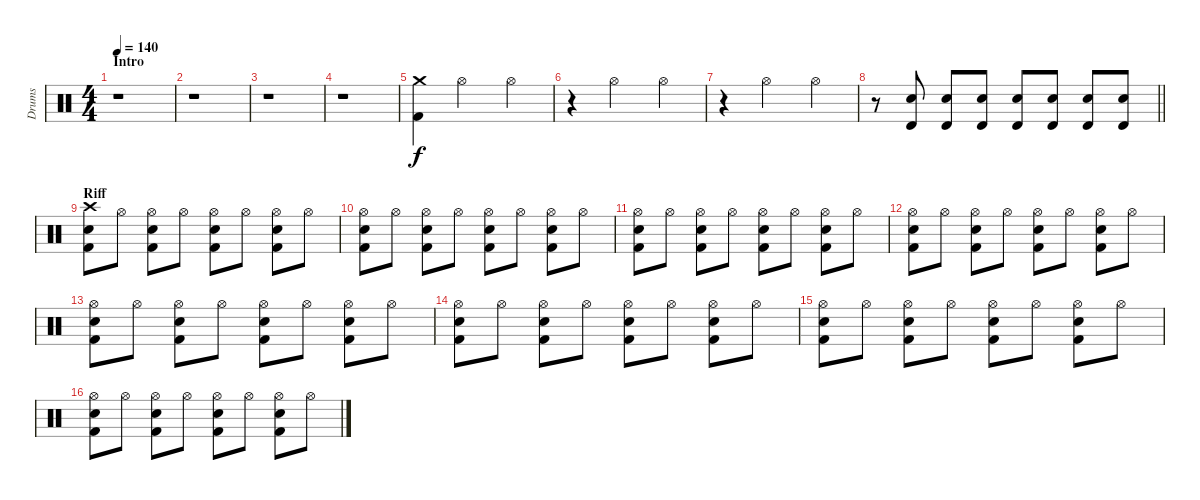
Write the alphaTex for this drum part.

\track ("Drums" "Drums") {instrument percussion}
\staff {score}
\articulation defaults
\ts (4 4)
\section ("" "Intro")
\tempo 140
\clef neutral
\ks c
r.1{dy f} |
r.1 |
r.1 |
r.1 |
("Crash medium (hit)" "Kick (hit) 2").4 "Hi-Hat (open)".2 "Hi-Hat (open)".4 |
r.4 "Hi-Hat (open)".2 "Hi-Hat (open)".4 |
r.4 "Hi-Hat (open)".2 "Hi-Hat (open)".4 |
\barLineRight lightlight
r.8 ("Timbale high (hit)" "Snare (hit) 2").8 ("Timbale high (hit)" "Snare (hit) 2").8 ("Timbale high (hit)" "Snare (hit) 2").8 ("Timbale high (hit)" "Snare (hit) 2").8 ("Timbale high (hit)" "Snare (hit) 2").8 ("Timbale high (hit)" "Snare (hit) 2").8 ("Timbale high (hit)" "Snare (hit) 2").8 |
\section ("" "Riff")
("Crash high (hit)" "Snare (hit) 2" "Kick (hit) 2").8 "Hi-Hat (open)".8 ("Hi-Hat (open)" "Snare (hit) 2" "Kick (hit) 2").8 "Hi-Hat (open)".8 ("Hi-Hat (open)" "Snare (hit) 2" "Kick (hit) 2").8 "Hi-Hat (open)".8 ("Hi-Hat (open)" "Snare (hit) 2" "Kick (hit) 2").8 "Hi-Hat (open)".8 |
("Hi-Hat (open)" "Snare (hit) 2" "Kick (hit) 2").8 "Hi-Hat (open)".8 ("Hi-Hat (open)" "Snare (hit) 2" "Kick (hit) 2").8 "Hi-Hat (open)".8 ("Hi-Hat (open)" "Snare (hit) 2" "Kick (hit) 2").8 "Hi-Hat (open)".8 ("Hi-Hat (open)" "Snare (hit) 2" "Kick (hit) 2").8 "Hi-Hat (open)".8 |
("Hi-Hat (open)" "Snare (hit) 2" "Kick (hit) 2").8 "Hi-Hat (open)".8 ("Hi-Hat (open)" "Snare (hit) 2" "Kick (hit) 2").8 "Hi-Hat (open)".8 ("Hi-Hat (open)" "Snare (hit) 2" "Kick (hit) 2").8 "Hi-Hat (open)".8 ("Hi-Hat (open)" "Snare (hit) 2" "Kick (hit) 2").8 "Hi-Hat (open)".8 |
("Hi-Hat (open)" "Snare (hit) 2" "Kick (hit) 2").8 "Hi-Hat (open)".8 ("Hi-Hat (open)" "Snare (hit) 2" "Kick (hit) 2").8 "Hi-Hat (open)".8 ("Hi-Hat (open)" "Snare (hit) 2" "Kick (hit) 2").8 "Hi-Hat (open)".8 ("Hi-Hat (open)" "Snare (hit) 2" "Kick (hit) 2").8 "Hi-Hat (open)".8 |
("Hi-Hat (open)" "Snare (hit) 2" "Kick (hit) 2").8 "Hi-Hat (open)".8 ("Hi-Hat (open)" "Snare (hit) 2" "Kick (hit) 2").8 "Hi-Hat (open)".8 ("Hi-Hat (open)" "Snare (hit) 2" "Kick (hit) 2").8 "Hi-Hat (open)".8 ("Hi-Hat (open)" "Snare (hit) 2" "Kick (hit) 2").8 "Hi-Hat (open)".8 |
("Hi-Hat (open)" "Snare (hit) 2" "Kick (hit) 2").8 "Hi-Hat (open)".8 ("Hi-Hat (open)" "Snare (hit) 2" "Kick (hit) 2").8 "Hi-Hat (open)".8 ("Hi-Hat (open)" "Snare (hit) 2" "Kick (hit) 2").8 "Hi-Hat (open)".8 ("Hi-Hat (open)" "Snare (hit) 2" "Kick (hit) 2").8 "Hi-Hat (open)".8 |
("Hi-Hat (open)" "Snare (hit) 2" "Kick (hit) 2").8 "Hi-Hat (open)".8 ("Hi-Hat (open)" "Snare (hit) 2" "Kick (hit) 2").8 "Hi-Hat (open)".8 ("Hi-Hat (open)" "Snare (hit) 2" "Kick (hit) 2").8 "Hi-Hat (open)".8 ("Hi-Hat (open)" "Snare (hit) 2" "Kick (hit) 2").8 "Hi-Hat (open)".8 |
("Hi-Hat (open)" "Snare (hit) 2" "Kick (hit) 2").8 "Hi-Hat (open)".8 ("Hi-Hat (open)" "Snare (hit) 2" "Kick (hit) 2").8 "Hi-Hat (open)".8 ("Hi-Hat (open)" "Snare (hit) 2" "Kick (hit) 2").8 "Hi-Hat (open)".8 ("Hi-Hat (open)" "Snare (hit) 2" "Kick (hit) 2").8 "Hi-Hat (open)".8
